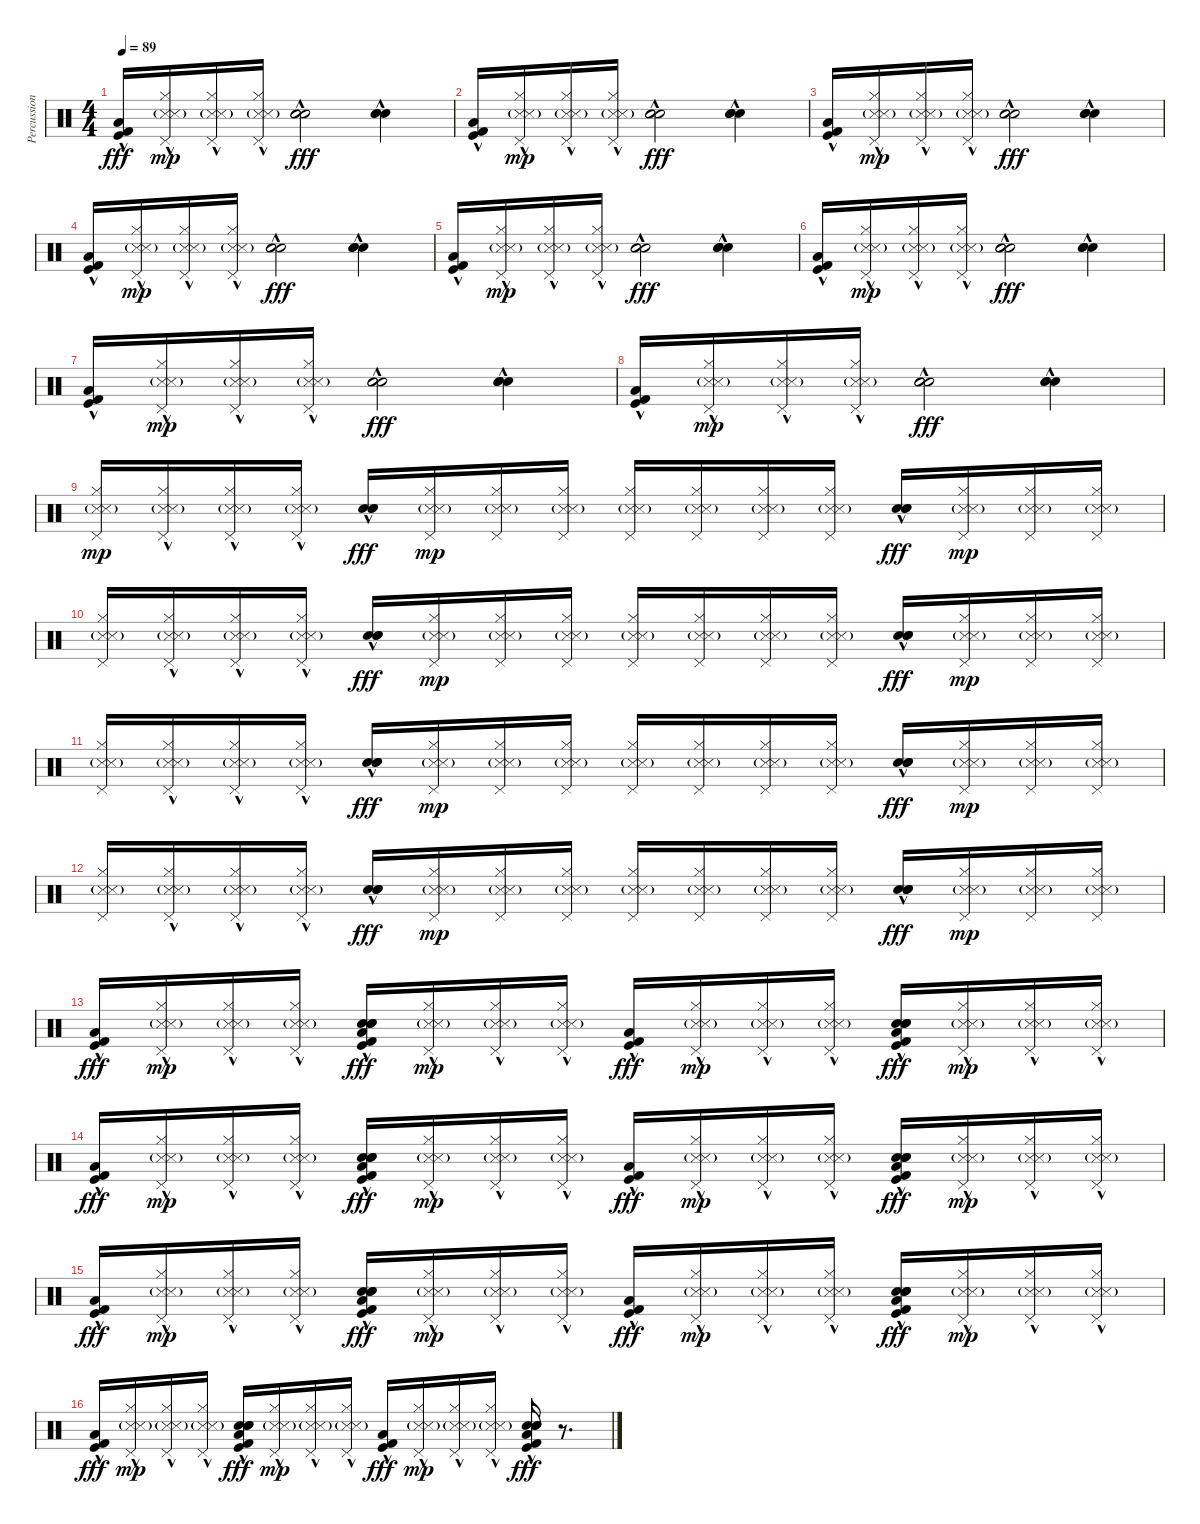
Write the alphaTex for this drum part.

\track ("Percussion" "Percussion") {instrument percussion}
\staff {score}
\articulation defaults
\ts (4 4)
\tempo 89
\clef neutral
\ks c
("Kick (hit) 2"{hac} "Kick (hit)"{hac} "Low Floor Tom (hit)"{hac}).16{dy fff} ("Pedal Hi-Hat (hit)"{hac} "Hi-Hat (closed)" "Snare (side stick) 3"{g} "Metronome (hit)"{g}).16{dy mp} ("Pedal Hi-Hat (hit)"{hac} "Hi-Hat (closed)" "Snare (side stick) 3"{g} "Metronome (hit)"{g}).16 ("Pedal Hi-Hat (hit)"{hac} "Hi-Hat (closed)" "Snare (side stick) 3"{g} "Metronome (hit)"{g}).16 ("Hand Clap (hit)"{hac} "Hand Clap (hit)"{hac} "Hand Clap (hit)"{hac}).2{dy fff} ("Hand Clap (hit)"{hac} "Hand Clap (hit)"{hac} "Hand Clap (hit)"{hac}).4 |
("Kick (hit) 2"{hac} "Kick (hit)"{hac} "Low Floor Tom (hit)"{hac}).16 ("Pedal Hi-Hat (hit)"{hac} "Hi-Hat (closed)" "Snare (side stick) 3"{g} "Metronome (hit)"{g}).16{dy mp} ("Pedal Hi-Hat (hit)"{hac} "Hi-Hat (closed)" "Snare (side stick) 3"{g} "Metronome (hit)"{g}).16 ("Pedal Hi-Hat (hit)"{hac} "Hi-Hat (closed)" "Snare (side stick) 3"{g} "Metronome (hit)"{g}).16 ("Hand Clap (hit)"{hac} "Hand Clap (hit)"{hac} "Hand Clap (hit)"{hac}).2{dy fff} ("Hand Clap (hit)"{hac} "Hand Clap (hit)"{hac} "Hand Clap (hit)"{hac}).4 |
("Kick (hit) 2"{hac} "Kick (hit)"{hac} "Low Floor Tom (hit)"{hac}).16 ("Pedal Hi-Hat (hit)"{hac} "Hi-Hat (closed)" "Snare (side stick) 3"{g} "Metronome (hit)"{g}).16{dy mp} ("Pedal Hi-Hat (hit)"{hac} "Hi-Hat (closed)" "Snare (side stick) 3"{g} "Metronome (hit)"{g}).16 ("Pedal Hi-Hat (hit)"{hac} "Hi-Hat (closed)" "Snare (side stick) 3"{g} "Metronome (hit)"{g}).16 ("Hand Clap (hit)"{hac} "Hand Clap (hit)"{hac} "Hand Clap (hit)"{hac}).2{dy fff} ("Hand Clap (hit)"{hac} "Hand Clap (hit)"{hac} "Hand Clap (hit)"{hac}).4 |
("Kick (hit) 2"{hac} "Kick (hit)"{hac} "Low Floor Tom (hit)"{hac}).16 ("Pedal Hi-Hat (hit)"{hac} "Hi-Hat (closed)" "Snare (side stick) 3"{g} "Metronome (hit)"{g}).16{dy mp} ("Pedal Hi-Hat (hit)"{hac} "Hi-Hat (closed)" "Snare (side stick) 3"{g} "Metronome (hit)"{g}).16 ("Pedal Hi-Hat (hit)"{hac} "Hi-Hat (closed)" "Snare (side stick) 3"{g} "Metronome (hit)"{g}).16 ("Hand Clap (hit)"{hac} "Hand Clap (hit)"{hac} "Hand Clap (hit)"{hac}).2{dy fff} ("Hand Clap (hit)"{hac} "Hand Clap (hit)"{hac} "Hand Clap (hit)"{hac}).4 |
("Kick (hit) 2"{hac} "Kick (hit)"{hac} "Low Floor Tom (hit)"{hac}).16 ("Pedal Hi-Hat (hit)"{hac} "Hi-Hat (closed)" "Snare (side stick) 3"{g} "Metronome (hit)"{g}).16{dy mp} ("Pedal Hi-Hat (hit)"{hac} "Hi-Hat (closed)" "Snare (side stick) 3"{g} "Metronome (hit)"{g}).16 ("Pedal Hi-Hat (hit)"{hac} "Hi-Hat (closed)" "Snare (side stick) 3"{g} "Metronome (hit)"{g}).16 ("Hand Clap (hit)"{hac} "Hand Clap (hit)"{hac} "Hand Clap (hit)"{hac}).2{dy fff} ("Hand Clap (hit)"{hac} "Hand Clap (hit)"{hac} "Hand Clap (hit)"{hac}).4 |
("Kick (hit) 2"{hac} "Kick (hit)"{hac} "Low Floor Tom (hit)"{hac}).16 ("Pedal Hi-Hat (hit)"{hac} "Hi-Hat (closed)" "Snare (side stick) 3"{g} "Metronome (hit)"{g}).16{dy mp} ("Pedal Hi-Hat (hit)"{hac} "Hi-Hat (closed)" "Snare (side stick) 3"{g} "Metronome (hit)"{g}).16 ("Pedal Hi-Hat (hit)"{hac} "Hi-Hat (closed)" "Snare (side stick) 3"{g} "Metronome (hit)"{g}).16 ("Hand Clap (hit)"{hac} "Hand Clap (hit)"{hac} "Hand Clap (hit)"{hac}).2{dy fff} ("Hand Clap (hit)"{hac} "Hand Clap (hit)"{hac} "Hand Clap (hit)"{hac}).4 |
("Kick (hit) 2"{hac} "Kick (hit)"{hac} "Low Floor Tom (hit)"{hac}).16 ("Pedal Hi-Hat (hit)"{hac} "Hi-Hat (closed)" "Snare (side stick) 3"{g} "Metronome (hit)"{g}).16{dy mp} ("Pedal Hi-Hat (hit)"{hac} "Hi-Hat (closed)" "Snare (side stick) 3"{g} "Metronome (hit)"{g}).16 ("Pedal Hi-Hat (hit)"{hac} "Hi-Hat (closed)" "Snare (side stick) 3"{g} "Metronome (hit)"{g}).16 ("Hand Clap (hit)"{hac} "Hand Clap (hit)"{hac} "Hand Clap (hit)"{hac}).2{dy fff} ("Hand Clap (hit)"{hac} "Hand Clap (hit)"{hac} "Hand Clap (hit)"{hac}).4 |
("Kick (hit) 2"{hac} "Kick (hit)"{hac} "Low Floor Tom (hit)"{hac}).16 ("Pedal Hi-Hat (hit)"{hac} "Hi-Hat (closed)" "Snare (side stick) 3"{g} "Metronome (hit)"{g}).16{dy mp} ("Pedal Hi-Hat (hit)"{hac} "Hi-Hat (closed)" "Snare (side stick) 3"{g} "Metronome (hit)"{g}).16 ("Pedal Hi-Hat (hit)"{hac} "Hi-Hat (closed)" "Snare (side stick) 3"{g} "Metronome (hit)"{g}).16 ("Hand Clap (hit)"{hac} "Hand Clap (hit)"{hac} "Hand Clap (hit)"{hac}).2{dy fff} ("Hand Clap (hit)"{hac} "Hand Clap (hit)"{hac} "Hand Clap (hit)"{hac}).4 |
("Pedal Hi-Hat (hit)" "Hi-Hat (closed)" "Snare (side stick) 3"{g} "Metronome (hit)"{g}).16{dy mp} ("Pedal Hi-Hat (hit)"{hac} "Hi-Hat (closed)" "Snare (side stick) 3"{g} "Metronome (hit)"{g}).16 ("Pedal Hi-Hat (hit)"{hac} "Hi-Hat (closed)" "Snare (side stick) 3"{g} "Metronome (hit)"{g}).16 ("Pedal Hi-Hat (hit)"{hac} "Hi-Hat (closed)" "Snare (side stick) 3"{g} "Metronome (hit)"{g}).16 ("Hand Clap (hit)"{hac} "Hand Clap (hit)"{hac} "Hand Clap (hit)"{hac}).16{dy fff} ("Pedal Hi-Hat (hit)" "Hi-Hat (closed)" "Snare (side stick) 3"{g} "Metronome (hit)"{g}).16{dy mp} ("Pedal Hi-Hat (hit)" "Hi-Hat (closed)" "Snare (side stick) 3"{g} "Metronome (hit)"{g}).16 ("Pedal Hi-Hat (hit)" "Hi-Hat (closed)" "Snare (side stick) 3"{g} "Metronome (hit)"{g}).16 ("Pedal Hi-Hat (hit)" "Hi-Hat (closed)" "Snare (side stick) 3"{g} "Metronome (hit)"{g}).16 ("Pedal Hi-Hat (hit)" "Hi-Hat (closed)" "Snare (side stick) 3"{g} "Metronome (hit)"{g}).16 ("Pedal Hi-Hat (hit)" "Hi-Hat (closed)" "Snare (side stick) 3"{g} "Metronome (hit)"{g}).16 ("Pedal Hi-Hat (hit)" "Hi-Hat (closed)" "Snare (side stick) 3"{g} "Metronome (hit)"{g}).16 ("Hand Clap (hit)"{hac} "Hand Clap (hit)"{hac} "Hand Clap (hit)"{hac}).16{dy fff} ("Pedal Hi-Hat (hit)" "Hi-Hat (closed)" "Snare (side stick) 3"{g} "Metronome (hit)"{g}).16{dy mp} ("Pedal Hi-Hat (hit)" "Hi-Hat (closed)" "Snare (side stick) 3"{g} "Metronome (hit)"{g}).16 ("Pedal Hi-Hat (hit)" "Hi-Hat (closed)" "Snare (side stick) 3"{g} "Metronome (hit)"{g}).16 |
("Pedal Hi-Hat (hit)" "Hi-Hat (closed)" "Snare (side stick) 3"{g} "Metronome (hit)"{g}).16 ("Pedal Hi-Hat (hit)"{hac} "Hi-Hat (closed)" "Snare (side stick) 3"{g} "Metronome (hit)"{g}).16 ("Pedal Hi-Hat (hit)"{hac} "Hi-Hat (closed)" "Snare (side stick) 3"{g} "Metronome (hit)"{g}).16 ("Pedal Hi-Hat (hit)"{hac} "Hi-Hat (closed)" "Snare (side stick) 3"{g} "Metronome (hit)"{g}).16 ("Hand Clap (hit)"{hac} "Hand Clap (hit)"{hac} "Hand Clap (hit)"{hac}).16{dy fff} ("Pedal Hi-Hat (hit)" "Hi-Hat (closed)" "Snare (side stick) 3"{g} "Metronome (hit)"{g}).16{dy mp} ("Pedal Hi-Hat (hit)" "Hi-Hat (closed)" "Snare (side stick) 3"{g} "Metronome (hit)"{g}).16 ("Pedal Hi-Hat (hit)" "Hi-Hat (closed)" "Snare (side stick) 3"{g} "Metronome (hit)"{g}).16 ("Pedal Hi-Hat (hit)" "Hi-Hat (closed)" "Snare (side stick) 3"{g} "Metronome (hit)"{g}).16 ("Pedal Hi-Hat (hit)" "Hi-Hat (closed)" "Snare (side stick) 3"{g} "Metronome (hit)"{g}).16 ("Pedal Hi-Hat (hit)" "Hi-Hat (closed)" "Snare (side stick) 3"{g} "Metronome (hit)"{g}).16 ("Pedal Hi-Hat (hit)" "Hi-Hat (closed)" "Snare (side stick) 3"{g} "Metronome (hit)"{g}).16 ("Hand Clap (hit)"{hac} "Hand Clap (hit)"{hac} "Hand Clap (hit)"{hac}).16{dy fff} ("Pedal Hi-Hat (hit)" "Hi-Hat (closed)" "Snare (side stick) 3"{g} "Metronome (hit)"{g}).16{dy mp} ("Pedal Hi-Hat (hit)" "Hi-Hat (closed)" "Snare (side stick) 3"{g} "Metronome (hit)"{g}).16 ("Pedal Hi-Hat (hit)" "Hi-Hat (closed)" "Snare (side stick) 3"{g} "Metronome (hit)"{g}).16 |
("Pedal Hi-Hat (hit)" "Hi-Hat (closed)" "Snare (side stick) 3"{g} "Metronome (hit)"{g}).16 ("Pedal Hi-Hat (hit)"{hac} "Hi-Hat (closed)" "Snare (side stick) 3"{g} "Metronome (hit)"{g}).16 ("Pedal Hi-Hat (hit)"{hac} "Hi-Hat (closed)" "Snare (side stick) 3"{g} "Metronome (hit)"{g}).16 ("Pedal Hi-Hat (hit)"{hac} "Hi-Hat (closed)" "Snare (side stick) 3"{g} "Metronome (hit)"{g}).16 ("Hand Clap (hit)"{hac} "Hand Clap (hit)"{hac} "Hand Clap (hit)"{hac}).16{dy fff} ("Pedal Hi-Hat (hit)" "Hi-Hat (closed)" "Snare (side stick) 3"{g} "Metronome (hit)"{g}).16{dy mp} ("Pedal Hi-Hat (hit)" "Hi-Hat (closed)" "Snare (side stick) 3"{g} "Metronome (hit)"{g}).16 ("Pedal Hi-Hat (hit)" "Hi-Hat (closed)" "Snare (side stick) 3"{g} "Metronome (hit)"{g}).16 ("Pedal Hi-Hat (hit)" "Hi-Hat (closed)" "Snare (side stick) 3"{g} "Metronome (hit)"{g}).16 ("Pedal Hi-Hat (hit)" "Hi-Hat (closed)" "Snare (side stick) 3"{g} "Metronome (hit)"{g}).16 ("Pedal Hi-Hat (hit)" "Hi-Hat (closed)" "Snare (side stick) 3"{g} "Metronome (hit)"{g}).16 ("Pedal Hi-Hat (hit)" "Hi-Hat (closed)" "Snare (side stick) 3"{g} "Metronome (hit)"{g}).16 ("Hand Clap (hit)"{hac} "Hand Clap (hit)"{hac} "Hand Clap (hit)"{hac}).16{dy fff} ("Pedal Hi-Hat (hit)" "Hi-Hat (closed)" "Snare (side stick) 3"{g} "Metronome (hit)"{g}).16{dy mp} ("Pedal Hi-Hat (hit)" "Hi-Hat (closed)" "Snare (side stick) 3"{g} "Metronome (hit)"{g}).16 ("Pedal Hi-Hat (hit)" "Hi-Hat (closed)" "Snare (side stick) 3"{g} "Metronome (hit)"{g}).16 |
("Pedal Hi-Hat (hit)" "Hi-Hat (closed)" "Snare (side stick) 3"{g} "Metronome (hit)"{g}).16 ("Pedal Hi-Hat (hit)"{hac} "Hi-Hat (closed)" "Snare (side stick) 3"{g} "Metronome (hit)"{g}).16 ("Pedal Hi-Hat (hit)"{hac} "Hi-Hat (closed)" "Snare (side stick) 3"{g} "Metronome (hit)"{g}).16 ("Pedal Hi-Hat (hit)"{hac} "Hi-Hat (closed)" "Snare (side stick) 3"{g} "Metronome (hit)"{g}).16 ("Hand Clap (hit)"{hac} "Hand Clap (hit)"{hac} "Hand Clap (hit)"{hac}).16{dy fff} ("Pedal Hi-Hat (hit)" "Hi-Hat (closed)" "Snare (side stick) 3"{g} "Metronome (hit)"{g}).16{dy mp} ("Pedal Hi-Hat (hit)" "Hi-Hat (closed)" "Snare (side stick) 3"{g} "Metronome (hit)"{g}).16 ("Pedal Hi-Hat (hit)" "Hi-Hat (closed)" "Snare (side stick) 3"{g} "Metronome (hit)"{g}).16 ("Pedal Hi-Hat (hit)" "Hi-Hat (closed)" "Snare (side stick) 3"{g} "Metronome (hit)"{g}).16 ("Pedal Hi-Hat (hit)" "Hi-Hat (closed)" "Snare (side stick) 3"{g} "Metronome (hit)"{g}).16 ("Pedal Hi-Hat (hit)" "Hi-Hat (closed)" "Snare (side stick) 3"{g} "Metronome (hit)"{g}).16 ("Pedal Hi-Hat (hit)" "Hi-Hat (closed)" "Snare (side stick) 3"{g} "Metronome (hit)"{g}).16 ("Hand Clap (hit)"{hac} "Hand Clap (hit)"{hac} "Hand Clap (hit)"{hac}).16{dy fff} ("Pedal Hi-Hat (hit)" "Hi-Hat (closed)" "Snare (side stick) 3"{g} "Metronome (hit)"{g}).16{dy mp} ("Pedal Hi-Hat (hit)" "Hi-Hat (closed)" "Snare (side stick) 3"{g} "Metronome (hit)"{g}).16 ("Pedal Hi-Hat (hit)" "Hi-Hat (closed)" "Snare (side stick) 3"{g} "Metronome (hit)"{g}).16 |
("Kick (hit) 2"{hac} "Kick (hit)"{hac} "Low Floor Tom (hit)"{hac}).16{dy fff} ("Pedal Hi-Hat (hit)"{hac} "Hi-Hat (closed)" "Snare (side stick) 3"{g} "Metronome (hit)"{g}).16{dy mp} ("Pedal Hi-Hat (hit)"{hac} "Hi-Hat (closed)" "Snare (side stick) 3"{g} "Metronome (hit)"{g}).16 ("Pedal Hi-Hat (hit)"{hac} "Hi-Hat (closed)" "Snare (side stick) 3"{g} "Metronome (hit)"{g}).16 ("Hand Clap (hit)"{hac} "Hand Clap (hit)"{hac} "Hand Clap (hit)"{hac} "Low Floor Tom (hit)"{hac} "Kick (hit)"{hac} "Kick (hit) 2"{hac}).16{dy fff} ("Pedal Hi-Hat (hit)"{hac} "Hi-Hat (closed)"{hac} "Snare (side stick) 3"{g} "Metronome (hit)"{g}).16{dy mp} ("Pedal Hi-Hat (hit)"{hac} "Hi-Hat (closed)"{hac} "Snare (side stick) 3"{g} "Metronome (hit)"{g}).16 ("Pedal Hi-Hat (hit)"{hac} "Hi-Hat (closed)"{hac} "Snare (side stick) 3"{g} "Metronome (hit)"{g}).16 ("Kick (hit) 2"{hac} "Kick (hit)"{hac} "Low Floor Tom (hit)"{hac}).16{dy fff} ("Pedal Hi-Hat (hit)"{hac} "Hi-Hat (closed)" "Snare (side stick) 3"{g} "Metronome (hit)"{g}).16{dy mp} ("Pedal Hi-Hat (hit)"{hac} "Hi-Hat (closed)" "Snare (side stick) 3"{g} "Metronome (hit)"{g}).16 ("Pedal Hi-Hat (hit)"{hac} "Hi-Hat (closed)" "Snare (side stick) 3"{g} "Metronome (hit)"{g}).16 ("Hand Clap (hit)"{hac} "Hand Clap (hit)"{hac} "Hand Clap (hit)"{hac} "Low Floor Tom (hit)"{hac} "Kick (hit)"{hac} "Kick (hit) 2"{hac}).16{dy fff} ("Pedal Hi-Hat (hit)"{hac} "Hi-Hat (closed)"{hac} "Snare (side stick) 3"{g} "Metronome (hit)"{g}).16{dy mp} ("Pedal Hi-Hat (hit)"{hac} "Hi-Hat (closed)"{hac} "Snare (side stick) 3"{g} "Metronome (hit)"{g}).16 ("Pedal Hi-Hat (hit)"{hac} "Hi-Hat (closed)"{hac} "Snare (side stick) 3"{g} "Metronome (hit)"{g}).16 |
("Kick (hit) 2"{hac} "Kick (hit)"{hac} "Low Floor Tom (hit)"{hac}).16{dy fff} ("Pedal Hi-Hat (hit)"{hac} "Hi-Hat (closed)" "Snare (side stick) 3"{g} "Metronome (hit)"{g}).16{dy mp} ("Pedal Hi-Hat (hit)"{hac} "Hi-Hat (closed)" "Snare (side stick) 3"{g} "Metronome (hit)"{g}).16 ("Pedal Hi-Hat (hit)"{hac} "Hi-Hat (closed)" "Snare (side stick) 3"{g} "Metronome (hit)"{g}).16 ("Hand Clap (hit)"{hac} "Hand Clap (hit)"{hac} "Hand Clap (hit)"{hac} "Low Floor Tom (hit)"{hac} "Kick (hit)"{hac} "Kick (hit) 2"{hac}).16{dy fff} ("Pedal Hi-Hat (hit)"{hac} "Hi-Hat (closed)"{hac} "Snare (side stick) 3"{g} "Metronome (hit)"{g}).16{dy mp} ("Pedal Hi-Hat (hit)"{hac} "Hi-Hat (closed)"{hac} "Snare (side stick) 3"{g} "Metronome (hit)"{g}).16 ("Pedal Hi-Hat (hit)"{hac} "Hi-Hat (closed)"{hac} "Snare (side stick) 3"{g} "Metronome (hit)"{g}).16 ("Kick (hit) 2"{hac} "Kick (hit)"{hac} "Low Floor Tom (hit)"{hac}).16{dy fff} ("Pedal Hi-Hat (hit)"{hac} "Hi-Hat (closed)" "Snare (side stick) 3"{g} "Metronome (hit)"{g}).16{dy mp} ("Pedal Hi-Hat (hit)"{hac} "Hi-Hat (closed)" "Snare (side stick) 3"{g} "Metronome (hit)"{g}).16 ("Pedal Hi-Hat (hit)"{hac} "Hi-Hat (closed)" "Snare (side stick) 3"{g} "Metronome (hit)"{g}).16 ("Hand Clap (hit)"{hac} "Hand Clap (hit)"{hac} "Hand Clap (hit)"{hac} "Low Floor Tom (hit)"{hac} "Kick (hit)"{hac} "Kick (hit) 2"{hac}).16{dy fff} ("Pedal Hi-Hat (hit)"{hac} "Hi-Hat (closed)"{hac} "Snare (side stick) 3"{g} "Metronome (hit)"{g}).16{dy mp} ("Pedal Hi-Hat (hit)"{hac} "Hi-Hat (closed)"{hac} "Snare (side stick) 3"{g} "Metronome (hit)"{g}).16 ("Pedal Hi-Hat (hit)"{hac} "Hi-Hat (closed)"{hac} "Snare (side stick) 3"{g} "Metronome (hit)"{g}).16 |
("Kick (hit) 2"{hac} "Kick (hit)"{hac} "Low Floor Tom (hit)"{hac}).16{dy fff} ("Pedal Hi-Hat (hit)"{hac} "Hi-Hat (closed)" "Snare (side stick) 3"{g} "Metronome (hit)"{g}).16{dy mp} ("Pedal Hi-Hat (hit)"{hac} "Hi-Hat (closed)" "Snare (side stick) 3"{g} "Metronome (hit)"{g}).16 ("Pedal Hi-Hat (hit)"{hac} "Hi-Hat (closed)" "Snare (side stick) 3"{g} "Metronome (hit)"{g}).16 ("Hand Clap (hit)"{hac} "Hand Clap (hit)"{hac} "Hand Clap (hit)"{hac} "Low Floor Tom (hit)"{hac} "Kick (hit)"{hac} "Kick (hit) 2"{hac}).16{dy fff} ("Pedal Hi-Hat (hit)"{hac} "Hi-Hat (closed)"{hac} "Snare (side stick) 3"{g} "Metronome (hit)"{g}).16{dy mp} ("Pedal Hi-Hat (hit)"{hac} "Hi-Hat (closed)"{hac} "Snare (side stick) 3"{g} "Metronome (hit)"{g}).16 ("Pedal Hi-Hat (hit)"{hac} "Hi-Hat (closed)"{hac} "Snare (side stick) 3"{g} "Metronome (hit)"{g}).16 ("Kick (hit) 2"{hac} "Kick (hit)"{hac} "Low Floor Tom (hit)"{hac}).16{dy fff} ("Pedal Hi-Hat (hit)"{hac} "Hi-Hat (closed)" "Snare (side stick) 3"{g} "Metronome (hit)"{g}).16{dy mp} ("Pedal Hi-Hat (hit)"{hac} "Hi-Hat (closed)" "Snare (side stick) 3"{g} "Metronome (hit)"{g}).16 ("Pedal Hi-Hat (hit)"{hac} "Hi-Hat (closed)" "Snare (side stick) 3"{g} "Metronome (hit)"{g}).16 ("Hand Clap (hit)"{hac} "Hand Clap (hit)"{hac} "Hand Clap (hit)"{hac} "Low Floor Tom (hit)"{hac} "Kick (hit)"{hac} "Kick (hit) 2"{hac}).16{dy fff} ("Pedal Hi-Hat (hit)"{hac} "Hi-Hat (closed)"{hac} "Snare (side stick) 3"{g} "Metronome (hit)"{g}).16{dy mp} ("Pedal Hi-Hat (hit)"{hac} "Hi-Hat (closed)"{hac} "Snare (side stick) 3"{g} "Metronome (hit)"{g}).16 ("Pedal Hi-Hat (hit)"{hac} "Hi-Hat (closed)"{hac} "Snare (side stick) 3"{g} "Metronome (hit)"{g}).16 |
("Kick (hit) 2"{hac} "Kick (hit)"{hac} "Low Floor Tom (hit)"{hac}).16{dy fff} ("Pedal Hi-Hat (hit)"{hac} "Hi-Hat (closed)" "Snare (side stick) 3"{g} "Metronome (hit)"{g}).16{dy mp} ("Pedal Hi-Hat (hit)"{hac} "Hi-Hat (closed)" "Snare (side stick) 3"{g} "Metronome (hit)"{g}).16 ("Pedal Hi-Hat (hit)"{hac} "Hi-Hat (closed)" "Snare (side stick) 3"{g} "Metronome (hit)"{g}).16 ("Hand Clap (hit)"{hac} "Hand Clap (hit)"{hac} "Hand Clap (hit)"{hac} "Low Floor Tom (hit)"{hac} "Kick (hit)"{hac} "Kick (hit) 2"{hac}).16{dy fff} ("Pedal Hi-Hat (hit)"{hac} "Hi-Hat (closed)"{hac} "Snare (side stick) 3"{g} "Metronome (hit)"{g}).16{dy mp} ("Pedal Hi-Hat (hit)"{hac} "Hi-Hat (closed)"{hac} "Snare (side stick) 3"{g} "Metronome (hit)"{g}).16 ("Pedal Hi-Hat (hit)"{hac} "Hi-Hat (closed)"{hac} "Snare (side stick) 3"{g} "Metronome (hit)"{g}).16 ("Kick (hit) 2"{hac} "Kick (hit)"{hac} "Low Floor Tom (hit)"{hac}).16{dy fff} ("Pedal Hi-Hat (hit)"{hac} "Hi-Hat (closed)" "Snare (side stick) 3"{g} "Metronome (hit)"{g}).16{dy mp} ("Pedal Hi-Hat (hit)"{hac} "Hi-Hat (closed)" "Snare (side stick) 3"{g} "Metronome (hit)"{g}).16 ("Pedal Hi-Hat (hit)"{hac} "Hi-Hat (closed)" "Snare (side stick) 3"{g} "Metronome (hit)"{g}).16 ("Hand Clap (hit)"{hac} "Hand Clap (hit)"{hac} "Hand Clap (hit)"{hac} "Low Floor Tom (hit)"{hac} "Kick (hit)"{hac} "Kick (hit) 2"{hac}).16{dy fff} r.8{d}
